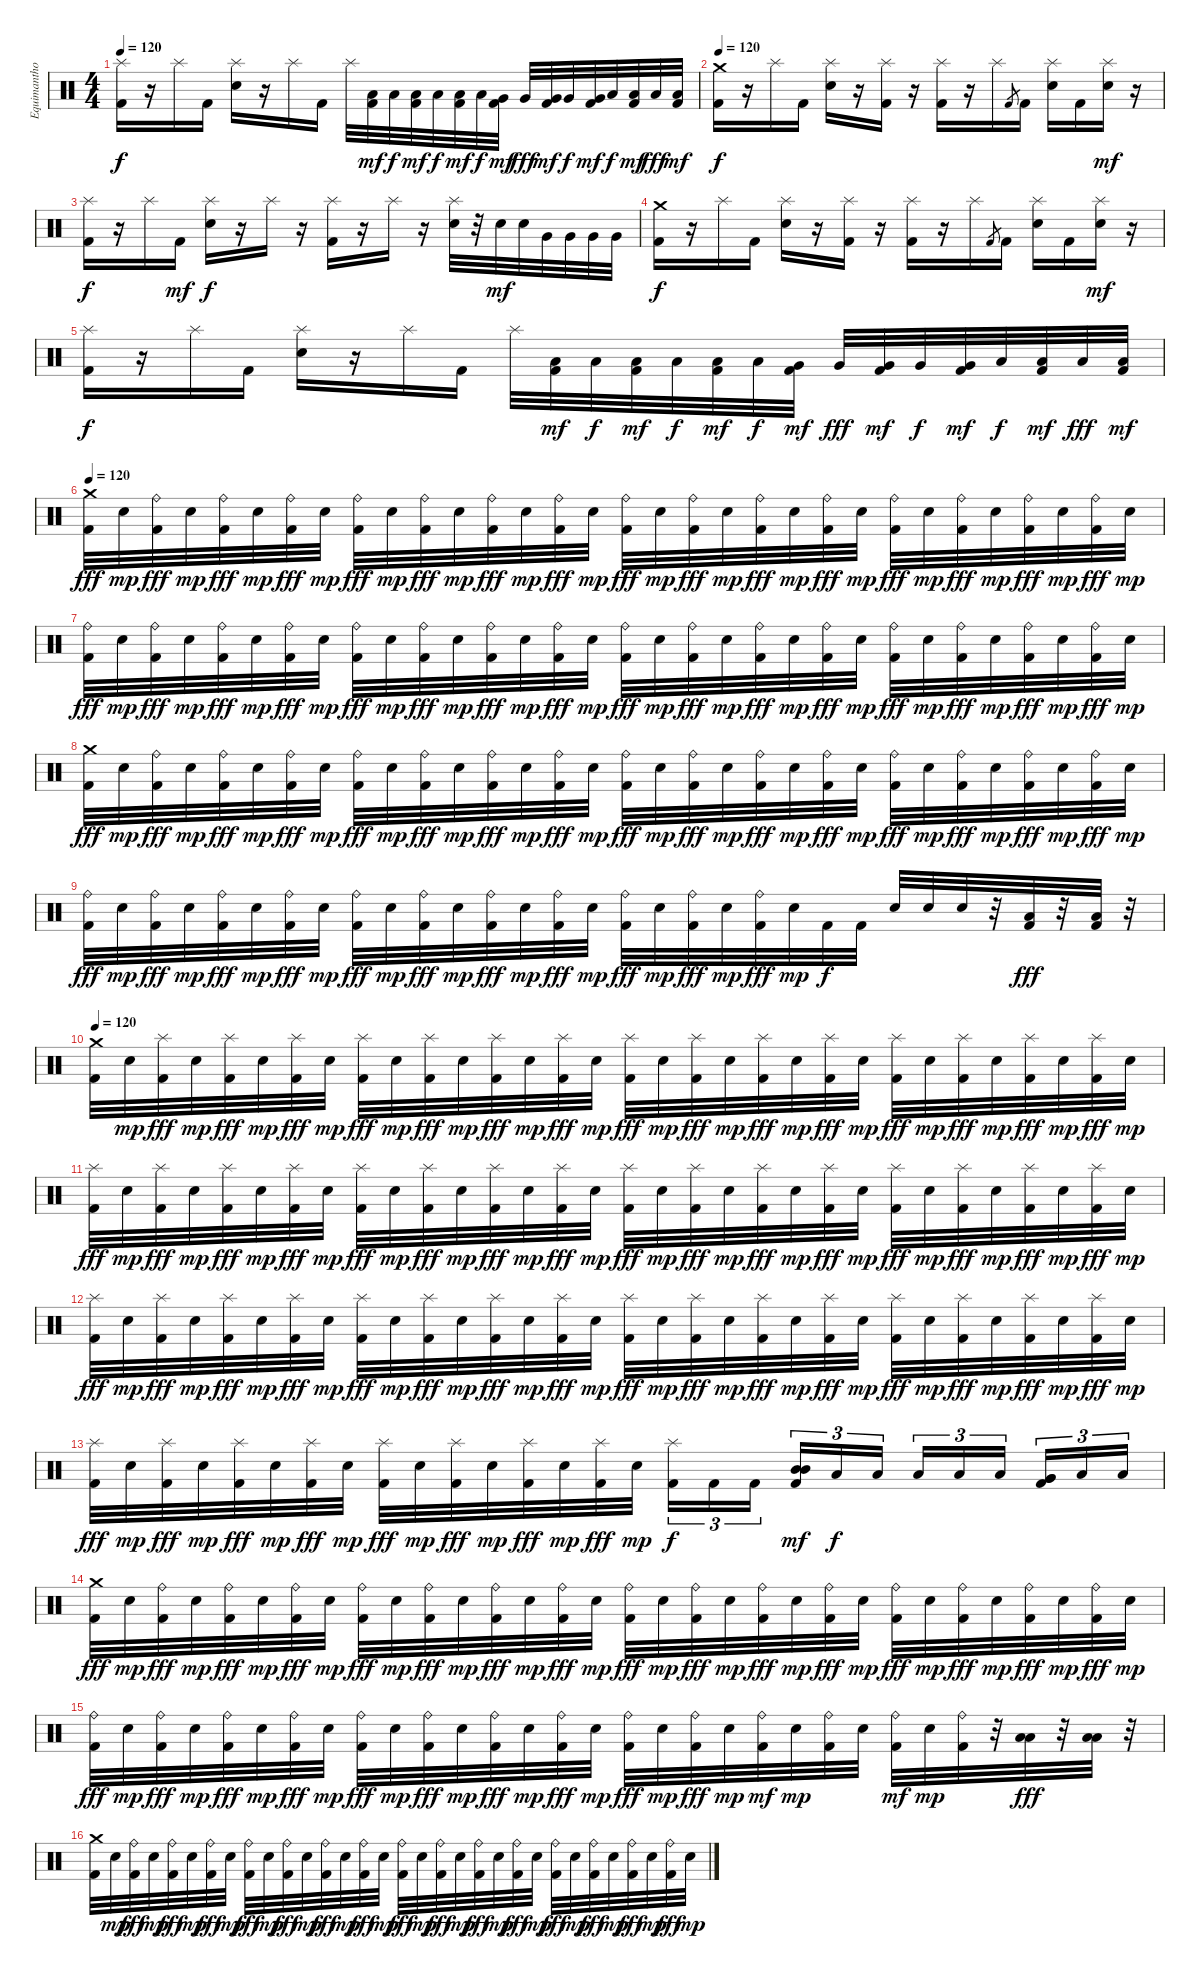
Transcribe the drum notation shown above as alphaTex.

\track ("Equimanthorn" "Equimantho") {instrument percussion}
\staff {score}
\articulation defaults
\ts (4 4)
\tempo 120
\clef neutral
\ks c
("Splash (hit)" "Kick (hit) 2").16{dy f} r.16 "Splash (hit)".16 "Kick (hit) 2".16 ("Splash (hit)" "Snare (hit) 2").16 r.16 "Splash (hit)".16 "Kick (hit) 2".16 "Splash (hit)".32 ("Low Tom (hit)" "Kick (hit) 2").32{dy mf} "Low Tom (hit)".32{dy f} ("Low Tom (hit)" "Kick (hit) 2").32{dy mf} "Low Tom (hit)".32{dy f} ("Low Tom (hit)" "Kick (hit) 2").32{dy mf} "Low Tom (hit)".32{dy f} ("Very Low Tom (hit)" "Kick (hit) 2").32{dy mf} "Very Low Tom (hit)".32{dy fff} ("Very Low Tom (hit)" "Kick (hit) 2").32{dy mf} "Very Low Tom (hit)".32{dy f} ("Very Low Tom (hit)" "Kick (hit) 2").32{dy mf} "Low Floor Tom (hit)".32{dy f} ("Low Floor Tom (hit)" "Kick (hit) 2").32{dy mf} "Low Floor Tom (hit)".32{dy fff} ("Low Floor Tom (hit)" "Kick (hit) 2").32{dy mf} |
\tempo 120
("Crash medium (hit)" "Kick (hit) 2").16{dy f} r.16 "Splash (hit)".16 "Kick (hit) 2".16 ("Splash (hit)" "Snare (hit) 2").16 r.16 ("Splash (hit)" "Kick (hit) 2").16 r.16 ("Splash (hit)" "Kick (hit) 2").16 r.16 "Splash (hit)".16 "Kick (hit) 2".8{gr} "Kick (hit) 2".16 ("Splash (hit)" "Snare (hit) 2").16 "Kick (hit) 2".16 ("Splash (hit)" "Snare (hit) 2").16{dy mf} r.16 |
("Splash (hit)" "Kick (hit) 2").16{dy f} r.16 "Splash (hit)".16 "Kick (hit) 2".16{dy mf} ("Splash (hit)" "Snare (hit) 2").16{dy f} r.16 "Splash (hit)".16 r.16 ("Splash (hit)" "Kick (hit) 2").16 r.16 "Splash (hit)".16 r.16 ("Splash (hit)" "Snare (hit) 2").32 r.32 "Snare (hit) 2".32{dy mf} "Snare (hit) 2".32 "Very Low Tom (hit)".32 "Very Low Tom (hit)".32 "Very Low Tom (hit)".32 "Very Low Tom (hit)".32 |
("Crash medium (hit)" "Kick (hit) 2").16{dy f} r.16 "Splash (hit)".16 "Kick (hit) 2".16 ("Splash (hit)" "Snare (hit) 2").16 r.16 ("Splash (hit)" "Kick (hit) 2").16 r.16 ("Splash (hit)" "Kick (hit) 2").16 r.16 "Splash (hit)".16 "Kick (hit) 2".8{gr} "Kick (hit) 2".16 ("Splash (hit)" "Snare (hit) 2").16 "Kick (hit) 2".16 ("Splash (hit)" "Snare (hit) 2").16{dy mf} r.16 |
("Splash (hit)" "Kick (hit) 2").16{dy f} r.16 "Splash (hit)".16 "Kick (hit) 2".16 ("Splash (hit)" "Snare (hit) 2").16 r.16 "Splash (hit)".16 "Kick (hit) 2".16 "Splash (hit)".32 ("Low Tom (hit)" "Kick (hit) 2").32{dy mf} "Low Tom (hit)".32{dy f} ("Low Tom (hit)" "Kick (hit) 2").32{dy mf} "Low Tom (hit)".32{dy f} ("Low Tom (hit)" "Kick (hit) 2").32{dy mf} "Low Tom (hit)".32{dy f} ("Very Low Tom (hit)" "Kick (hit) 2").32{dy mf} "Very Low Tom (hit)".32{dy fff} ("Very Low Tom (hit)" "Kick (hit) 2").32{dy mf} "Very Low Tom (hit)".32{dy f} ("Very Low Tom (hit)" "Kick (hit) 2").32{dy mf} "Low Floor Tom (hit)".32{dy f} ("Low Floor Tom (hit)" "Kick (hit) 2").32{dy mf} "Low Floor Tom (hit)".32{dy fff} ("Low Floor Tom (hit)" "Kick (hit) 2").32{dy mf} |
\tempo 120
("Crash medium (hit)" "Kick (hit) 2").32{dy fff} "Snare (hit) 2".32{dy mp} ("Ride (bell)" "Kick (hit) 2").32{dy fff} "Snare (hit) 2".32{dy mp} ("Ride (bell)" "Kick (hit) 2").32{dy fff} "Snare (hit) 2".32{dy mp} ("Ride (bell)" "Kick (hit) 2").32{dy fff} "Snare (hit) 2".32{dy mp} ("Ride (bell)" "Kick (hit) 2").32{dy fff} "Snare (hit) 2".32{dy mp} ("Ride (bell)" "Kick (hit) 2").32{dy fff} "Snare (hit) 2".32{dy mp} ("Ride (bell)" "Kick (hit) 2").32{dy fff} "Snare (hit) 2".32{dy mp} ("Ride (bell)" "Kick (hit) 2").32{dy fff} "Snare (hit) 2".32{dy mp} ("Ride (bell)" "Kick (hit) 2").32{dy fff} "Snare (hit) 2".32{dy mp} ("Ride (bell)" "Kick (hit) 2").32{dy fff} "Snare (hit) 2".32{dy mp} ("Ride (bell)" "Kick (hit) 2").32{dy fff} "Snare (hit) 2".32{dy mp} ("Ride (bell)" "Kick (hit) 2").32{dy fff} "Snare (hit) 2".32{dy mp} ("Ride (bell)" "Kick (hit) 2").32{dy fff} "Snare (hit) 2".32{dy mp} ("Ride (bell)" "Kick (hit) 2").32{dy fff} "Snare (hit) 2".32{dy mp} ("Ride (bell)" "Kick (hit) 2").32{dy fff} "Snare (hit) 2".32{dy mp} ("Ride (bell)" "Kick (hit) 2").32{dy fff} "Snare (hit) 2".32{dy mp} |
("Ride (bell)" "Kick (hit) 2").32{dy fff} "Snare (hit) 2".32{dy mp} ("Ride (bell)" "Kick (hit) 2").32{dy fff} "Snare (hit) 2".32{dy mp} ("Ride (bell)" "Kick (hit) 2").32{dy fff} "Snare (hit) 2".32{dy mp} ("Ride (bell)" "Kick (hit) 2").32{dy fff} "Snare (hit) 2".32{dy mp} ("Ride (bell)" "Kick (hit) 2").32{dy fff} "Snare (hit) 2".32{dy mp} ("Ride (bell)" "Kick (hit) 2").32{dy fff} "Snare (hit) 2".32{dy mp} ("Ride (bell)" "Kick (hit) 2").32{dy fff} "Snare (hit) 2".32{dy mp} ("Ride (bell)" "Kick (hit) 2").32{dy fff} "Snare (hit) 2".32{dy mp} ("Ride (bell)" "Kick (hit) 2").32{dy fff} "Snare (hit) 2".32{dy mp} ("Ride (bell)" "Kick (hit) 2").32{dy fff} "Snare (hit) 2".32{dy mp} ("Ride (bell)" "Kick (hit) 2").32{dy fff} "Snare (hit) 2".32{dy mp} ("Ride (bell)" "Kick (hit) 2").32{dy fff} "Snare (hit) 2".32{dy mp} ("Ride (bell)" "Kick (hit) 2").32{dy fff} "Snare (hit) 2".32{dy mp} ("Ride (bell)" "Kick (hit) 2").32{dy fff} "Snare (hit) 2".32{dy mp} ("Ride (bell)" "Kick (hit) 2").32{dy fff} "Snare (hit) 2".32{dy mp} ("Ride (bell)" "Kick (hit) 2").32{dy fff} "Snare (hit) 2".32{dy mp} |
("Crash medium (hit)" "Kick (hit) 2").32{dy fff} "Snare (hit) 2".32{dy mp} ("Ride (bell)" "Kick (hit) 2").32{dy fff} "Snare (hit) 2".32{dy mp} ("Ride (bell)" "Kick (hit) 2").32{dy fff} "Snare (hit) 2".32{dy mp} ("Ride (bell)" "Kick (hit) 2").32{dy fff} "Snare (hit) 2".32{dy mp} ("Ride (bell)" "Kick (hit) 2").32{dy fff} "Snare (hit) 2".32{dy mp} ("Ride (bell)" "Kick (hit) 2").32{dy fff} "Snare (hit) 2".32{dy mp} ("Ride (bell)" "Kick (hit) 2").32{dy fff} "Snare (hit) 2".32{dy mp} ("Ride (bell)" "Kick (hit) 2").32{dy fff} "Snare (hit) 2".32{dy mp} ("Ride (bell)" "Kick (hit) 2").32{dy fff} "Snare (hit) 2".32{dy mp} ("Ride (bell)" "Kick (hit) 2").32{dy fff} "Snare (hit) 2".32{dy mp} ("Ride (bell)" "Kick (hit) 2").32{dy fff} "Snare (hit) 2".32{dy mp} ("Ride (bell)" "Kick (hit) 2").32{dy fff} "Snare (hit) 2".32{dy mp} ("Ride (bell)" "Kick (hit) 2").32{dy fff} "Snare (hit) 2".32{dy mp} ("Ride (bell)" "Kick (hit) 2").32{dy fff} "Snare (hit) 2".32{dy mp} ("Ride (bell)" "Kick (hit) 2").32{dy fff} "Snare (hit) 2".32{dy mp} ("Ride (bell)" "Kick (hit) 2").32{dy fff} "Snare (hit) 2".32{dy mp} |
("Ride (bell)" "Kick (hit) 2").32{dy fff} "Snare (hit) 2".32{dy mp} ("Ride (bell)" "Kick (hit) 2").32{dy fff} "Snare (hit) 2".32{dy mp} ("Ride (bell)" "Kick (hit) 2").32{dy fff} "Snare (hit) 2".32{dy mp} ("Ride (bell)" "Kick (hit) 2").32{dy fff} "Snare (hit) 2".32{dy mp} ("Ride (bell)" "Kick (hit) 2").32{dy fff} "Snare (hit) 2".32{dy mp} ("Ride (bell)" "Kick (hit) 2").32{dy fff} "Snare (hit) 2".32{dy mp} ("Ride (bell)" "Kick (hit) 2").32{dy fff} "Snare (hit) 2".32{dy mp} ("Ride (bell)" "Kick (hit) 2").32{dy fff} "Snare (hit) 2".32{dy mp} ("Ride (bell)" "Kick (hit) 2").32{dy fff} "Snare (hit) 2".32{dy mp} ("Ride (bell)" "Kick (hit) 2").32{dy fff} "Snare (hit) 2".32{dy mp} ("Ride (bell)" "Kick (hit) 2").32{dy fff} "Snare (hit) 2".32{dy mp} "Kick (hit) 2".32{dy f} "Kick (hit) 2".32 "Snare (hit) 2".32 "Snare (hit) 2".32 "Snare (hit) 2".32 r.32 ("Low Tom (hit)" "Kick (hit) 2").32{dy fff} r.32 ("Low Tom (hit)" "Kick (hit) 2").32 r.32 |
\tempo 120
("Crash medium (hit)" "Kick (hit) 2").32 "Snare (hit) 2".32{dy mp} ("Splash (hit)" "Kick (hit) 2").32{dy fff} "Snare (hit) 2".32{dy mp} ("Splash (hit)" "Kick (hit) 2").32{dy fff} "Snare (hit) 2".32{dy mp} ("Splash (hit)" "Kick (hit) 2").32{dy fff} "Snare (hit) 2".32{dy mp} ("Splash (hit)" "Kick (hit) 2").32{dy fff} "Snare (hit) 2".32{dy mp} ("Splash (hit)" "Kick (hit) 2").32{dy fff} "Snare (hit) 2".32{dy mp} ("Splash (hit)" "Kick (hit) 2").32{dy fff} "Snare (hit) 2".32{dy mp} ("Splash (hit)" "Kick (hit) 2").32{dy fff} "Snare (hit) 2".32{dy mp} ("Splash (hit)" "Kick (hit) 2").32{dy fff} "Snare (hit) 2".32{dy mp} ("Splash (hit)" "Kick (hit) 2").32{dy fff} "Snare (hit) 2".32{dy mp} ("Splash (hit)" "Kick (hit) 2").32{dy fff} "Snare (hit) 2".32{dy mp} ("Splash (hit)" "Kick (hit) 2").32{dy fff} "Snare (hit) 2".32{dy mp} ("Splash (hit)" "Kick (hit) 2").32{dy fff} "Snare (hit) 2".32{dy mp} ("Splash (hit)" "Kick (hit) 2").32{dy fff} "Snare (hit) 2".32{dy mp} ("Splash (hit)" "Kick (hit) 2").32{dy fff} "Snare (hit) 2".32{dy mp} ("Splash (hit)" "Kick (hit) 2").32{dy fff} "Snare (hit) 2".32{dy mp} |
("Splash (hit)" "Kick (hit) 2").32{dy fff} "Snare (hit) 2".32{dy mp} ("Splash (hit)" "Kick (hit) 2").32{dy fff} "Snare (hit) 2".32{dy mp} ("Splash (hit)" "Kick (hit) 2").32{dy fff} "Snare (hit) 2".32{dy mp} ("Splash (hit)" "Kick (hit) 2").32{dy fff} "Snare (hit) 2".32{dy mp} ("Splash (hit)" "Kick (hit) 2").32{dy fff} "Snare (hit) 2".32{dy mp} ("Splash (hit)" "Kick (hit) 2").32{dy fff} "Snare (hit) 2".32{dy mp} ("Splash (hit)" "Kick (hit) 2").32{dy fff} "Snare (hit) 2".32{dy mp} ("Splash (hit)" "Kick (hit) 2").32{dy fff} "Snare (hit) 2".32{dy mp} ("Splash (hit)" "Kick (hit) 2").32{dy fff} "Snare (hit) 2".32{dy mp} ("Splash (hit)" "Kick (hit) 2").32{dy fff} "Snare (hit) 2".32{dy mp} ("Splash (hit)" "Kick (hit) 2").32{dy fff} "Snare (hit) 2".32{dy mp} ("Splash (hit)" "Kick (hit) 2").32{dy fff} "Snare (hit) 2".32{dy mp} ("Splash (hit)" "Kick (hit) 2").32{dy fff} "Snare (hit) 2".32{dy mp} ("Splash (hit)" "Kick (hit) 2").32{dy fff} "Snare (hit) 2".32{dy mp} ("Splash (hit)" "Kick (hit) 2").32{dy fff} "Snare (hit) 2".32{dy mp} ("Splash (hit)" "Kick (hit) 2").32{dy fff} "Snare (hit) 2".32{dy mp} |
("Splash (hit)" "Kick (hit) 2").32{dy fff} "Snare (hit) 2".32{dy mp} ("Splash (hit)" "Kick (hit) 2").32{dy fff} "Snare (hit) 2".32{dy mp} ("Splash (hit)" "Kick (hit) 2").32{dy fff} "Snare (hit) 2".32{dy mp} ("Splash (hit)" "Kick (hit) 2").32{dy fff} "Snare (hit) 2".32{dy mp} ("Splash (hit)" "Kick (hit) 2").32{dy fff} "Snare (hit) 2".32{dy mp} ("Splash (hit)" "Kick (hit) 2").32{dy fff} "Snare (hit) 2".32{dy mp} ("Splash (hit)" "Kick (hit) 2").32{dy fff} "Snare (hit) 2".32{dy mp} ("Splash (hit)" "Kick (hit) 2").32{dy fff} "Snare (hit) 2".32{dy mp} ("Splash (hit)" "Kick (hit) 2").32{dy fff} "Snare (hit) 2".32{dy mp} ("Splash (hit)" "Kick (hit) 2").32{dy fff} "Snare (hit) 2".32{dy mp} ("Splash (hit)" "Kick (hit) 2").32{dy fff} "Snare (hit) 2".32{dy mp} ("Splash (hit)" "Kick (hit) 2").32{dy fff} "Snare (hit) 2".32{dy mp} ("Splash (hit)" "Kick (hit) 2").32{dy fff} "Snare (hit) 2".32{dy mp} ("Splash (hit)" "Kick (hit) 2").32{dy fff} "Snare (hit) 2".32{dy mp} ("Splash (hit)" "Kick (hit) 2").32{dy fff} "Snare (hit) 2".32{dy mp} ("Splash (hit)" "Kick (hit) 2").32{dy fff} "Snare (hit) 2".32{dy mp} |
("Splash (hit)" "Kick (hit) 2").32{dy fff} "Snare (hit) 2".32{dy mp} ("Splash (hit)" "Kick (hit) 2").32{dy fff} "Snare (hit) 2".32{dy mp} ("Splash (hit)" "Kick (hit) 2").32{dy fff} "Snare (hit) 2".32{dy mp} ("Splash (hit)" "Kick (hit) 2").32{dy fff} "Snare (hit) 2".32{dy mp} ("Splash (hit)" "Kick (hit) 2").32{dy fff} "Snare (hit) 2".32{dy mp} ("Splash (hit)" "Kick (hit) 2").32{dy fff} "Snare (hit) 2".32{dy mp} ("Splash (hit)" "Kick (hit) 2").32{dy fff} "Snare (hit) 2".32{dy mp} ("Splash (hit)" "Kick (hit) 2").32{dy fff} "Snare (hit) 2".32{dy mp} ("Splash (hit)" "Kick (hit) 2").16{tu (3 2) dy f} "Kick (hit) 2".16{tu (3 2)} "Kick (hit) 2".16{tu (3 2) beam splitsecondary} ("Mid Tom (hit)" "Mid Tom (hit)" "Kick (hit) 2").16{tu (3 2) dy mf} "Low Tom (hit)".16{tu (3 2) dy f} "Low Tom (hit)".16{tu (3 2)} "Low Tom (hit)".16{tu (3 2)} "Low Tom (hit)".16{tu (3 2)} "Low Tom (hit)".16{tu (3 2) beam splitsecondary} ("Very Low Tom (hit)" "Very Low Tom (hit)" "Kick (hit) 2").16{tu (3 2)} "Low Floor Tom (hit)".16{tu (3 2)} "Low Floor Tom (hit)".16{tu (3 2)} |
("Crash medium (hit)" "Kick (hit) 2").32{dy fff} "Snare (hit) 2".32{dy mp} ("Ride (bell)" "Kick (hit) 2").32{dy fff} "Snare (hit) 2".32{dy mp} ("Ride (bell)" "Kick (hit) 2").32{dy fff} "Snare (hit) 2".32{dy mp} ("Ride (bell)" "Kick (hit) 2").32{dy fff} "Snare (hit) 2".32{dy mp} ("Ride (bell)" "Kick (hit) 2").32{dy fff} "Snare (hit) 2".32{dy mp} ("Ride (bell)" "Kick (hit) 2").32{dy fff} "Snare (hit) 2".32{dy mp} ("Ride (bell)" "Kick (hit) 2").32{dy fff} "Snare (hit) 2".32{dy mp} ("Ride (bell)" "Kick (hit) 2").32{dy fff} "Snare (hit) 2".32{dy mp} ("Ride (bell)" "Kick (hit) 2").32{dy fff} "Snare (hit) 2".32{dy mp} ("Ride (bell)" "Kick (hit) 2").32{dy fff} "Snare (hit) 2".32{dy mp} ("Ride (bell)" "Kick (hit) 2").32{dy fff} "Snare (hit) 2".32{dy mp} ("Ride (bell)" "Kick (hit) 2").32{dy fff} "Snare (hit) 2".32{dy mp} ("Ride (bell)" "Kick (hit) 2").32{dy fff} "Snare (hit) 2".32{dy mp} ("Ride (bell)" "Kick (hit) 2").32{dy fff} "Snare (hit) 2".32{dy mp} ("Ride (bell)" "Kick (hit) 2").32{dy fff} "Snare (hit) 2".32{dy mp} ("Ride (bell)" "Kick (hit) 2").32{dy fff} "Snare (hit) 2".32{dy mp} |
("Ride (bell)" "Kick (hit) 2").32{dy fff} "Snare (hit) 2".32{dy mp} ("Ride (bell)" "Kick (hit) 2").32{dy fff} "Snare (hit) 2".32{dy mp} ("Ride (bell)" "Kick (hit) 2").32{dy fff} "Snare (hit) 2".32{dy mp} ("Ride (bell)" "Kick (hit) 2").32{dy fff} "Snare (hit) 2".32{dy mp} ("Ride (bell)" "Kick (hit) 2").32{dy fff} "Snare (hit) 2".32{dy mp} ("Ride (bell)" "Kick (hit) 2").32{dy fff} "Snare (hit) 2".32{dy mp} ("Ride (bell)" "Kick (hit) 2").32{dy fff} "Snare (hit) 2".32{dy mp} ("Ride (bell)" "Kick (hit) 2").32{dy fff} "Snare (hit) 2".32{dy mp} ("Ride (bell)" "Kick (hit) 2").32{dy fff} "Snare (hit) 2".32{dy mp} ("Ride (bell)" "Kick (hit) 2").32{dy fff} "Snare (hit) 2".32{dy mp} ("Ride (bell)" "Kick (hit) 2").32{dy mf} "Snare (hit) 2".32{dy mp} ("Ride (bell)" "Kick (hit) 2").32 "Snare (hit) 2".32 ("Ride (bell)" "Kick (hit) 2").32{dy mf} "Snare (hit) 2".32{dy mp} ("Ride (bell)" "Kick (hit) 2").32 r.32 ("Low Tom (hit)" "Low Tom (hit)").32{dy fff} r.32 ("Low Tom (hit)" "Low Tom (hit)").32 r.32 |
("Crash medium (hit)" "Kick (hit) 2").32 "Snare (hit) 2".32{dy mp} ("Ride (bell)" "Kick (hit) 2").32{dy fff} "Snare (hit) 2".32{dy mp} ("Ride (bell)" "Kick (hit) 2").32{dy fff} "Snare (hit) 2".32{dy mp} ("Ride (bell)" "Kick (hit) 2").32{dy fff} "Snare (hit) 2".32{dy mp} ("Ride (bell)" "Kick (hit) 2").32{dy fff} "Snare (hit) 2".32{dy mp} ("Ride (bell)" "Kick (hit) 2").32{dy fff} "Snare (hit) 2".32{dy mp} ("Ride (bell)" "Kick (hit) 2").32{dy fff} "Snare (hit) 2".32{dy mp} ("Ride (bell)" "Kick (hit) 2").32{dy fff} "Snare (hit) 2".32{dy mp} ("Ride (bell)" "Kick (hit) 2").32{dy fff} "Snare (hit) 2".32{dy mp} ("Ride (bell)" "Kick (hit) 2").32{dy fff} "Snare (hit) 2".32{dy mp} ("Ride (bell)" "Kick (hit) 2").32{dy fff} "Snare (hit) 2".32{dy mp} ("Ride (bell)" "Kick (hit) 2").32{dy fff} "Snare (hit) 2".32{dy mp} ("Ride (bell)" "Kick (hit) 2").32{dy fff} "Snare (hit) 2".32{dy mp} ("Ride (bell)" "Kick (hit) 2").32{dy fff} "Snare (hit) 2".32{dy mp} ("Ride (bell)" "Kick (hit) 2").32{dy fff} "Snare (hit) 2".32{dy mp} ("Ride (bell)" "Kick (hit) 2").32{dy fff} "Snare (hit) 2".32{dy mp}
